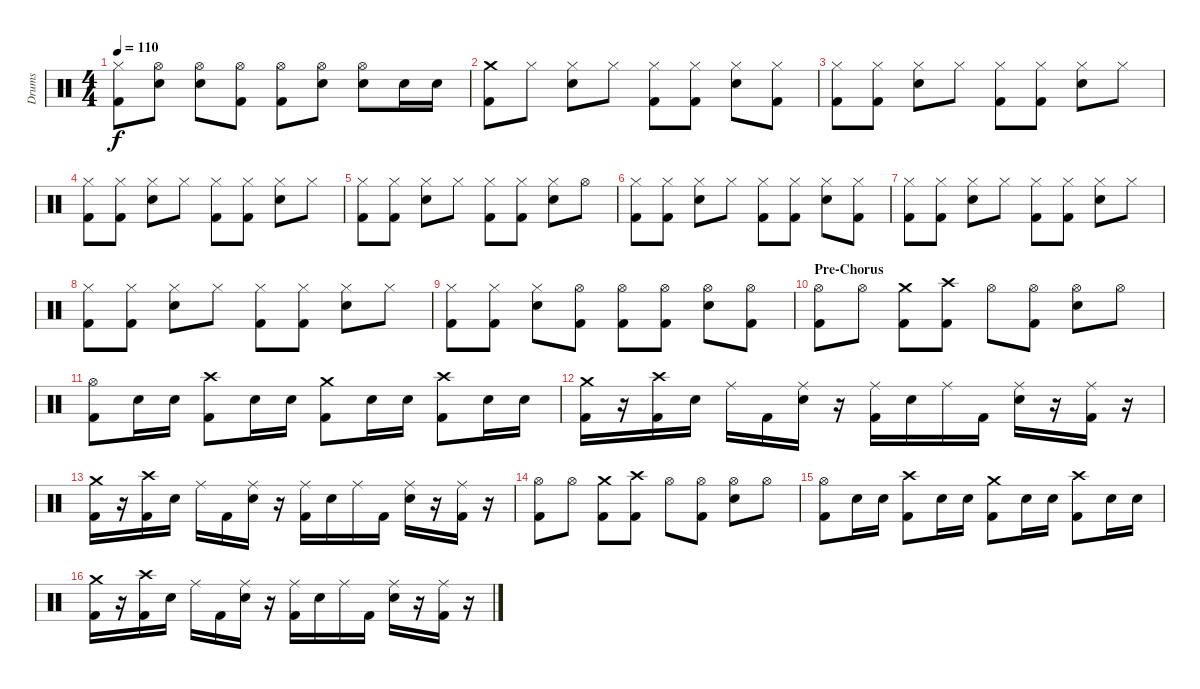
\track ("Drums" "Drums") {instrument percussion}
\staff {score}
\articulation defaults
\ts (4 4)
\tempo 110
\clef neutral
\ks c
("Hi-Hat (closed)" "Kick (hit) 2").8{dy f} ("Hi-Hat (open)" "Electric Snare (hit)").8 ("Hi-Hat (open)" "Electric Snare (hit)").8 ("Hi-Hat (open)" "Kick (hit) 2").8 ("Hi-Hat (open)" "Kick (hit) 2").8 ("Hi-Hat (open)" "Electric Snare (hit)").8 ("Hi-Hat (open)" "Electric Snare (hit)").8 "Electric Snare (hit)".16 "Electric Snare (hit)".16 |
("Crash medium (hit)" "Kick (hit) 2").8 "Hi-Hat (closed)".8 ("Hi-Hat (closed)" "Electric Snare (hit)").8 "Hi-Hat (closed)".8 ("Hi-Hat (closed)" "Kick (hit) 2").8 ("Hi-Hat (closed)" "Kick (hit) 2").8 ("Hi-Hat (closed)" "Electric Snare (hit)").8 ("Hi-Hat (closed)" "Kick (hit) 2").8 |
("Hi-Hat (closed)" "Kick (hit) 2").8 ("Hi-Hat (closed)" "Kick (hit) 2").8 ("Hi-Hat (closed)" "Electric Snare (hit)").8 "Hi-Hat (closed)".8 ("Hi-Hat (closed)" "Kick (hit) 2").8 ("Hi-Hat (closed)" "Kick (hit) 2").8 ("Hi-Hat (closed)" "Electric Snare (hit)").8 "Hi-Hat (closed)".8 |
("Hi-Hat (closed)" "Kick (hit) 2").8 ("Hi-Hat (closed)" "Kick (hit) 2").8 ("Hi-Hat (closed)" "Electric Snare (hit)").8 "Hi-Hat (closed)".8 ("Hi-Hat (closed)" "Kick (hit) 2").8 ("Hi-Hat (closed)" "Kick (hit) 2").8 ("Hi-Hat (closed)" "Electric Snare (hit)").8 "Hi-Hat (closed)".8 |
("Hi-Hat (closed)" "Kick (hit) 2").8 ("Hi-Hat (closed)" "Kick (hit) 2").8 ("Hi-Hat (closed)" "Electric Snare (hit)").8 "Hi-Hat (closed)".8 ("Hi-Hat (closed)" "Kick (hit) 2").8 ("Hi-Hat (closed)" "Kick (hit) 2").8 ("Hi-Hat (closed)" "Electric Snare (hit)").8 "Hi-Hat (open)".8 |
("Hi-Hat (closed)" "Kick (hit) 2").8 ("Hi-Hat (closed)" "Kick (hit) 2").8 ("Hi-Hat (closed)" "Electric Snare (hit)").8 "Hi-Hat (closed)".8 ("Hi-Hat (closed)" "Kick (hit) 2").8 ("Hi-Hat (closed)" "Kick (hit) 2").8 ("Hi-Hat (closed)" "Electric Snare (hit)").8 ("Hi-Hat (closed)" "Kick (hit) 2").8 |
("Hi-Hat (closed)" "Kick (hit) 2").8 ("Hi-Hat (closed)" "Kick (hit) 2").8 ("Hi-Hat (closed)" "Electric Snare (hit)").8 "Hi-Hat (closed)".8 ("Hi-Hat (closed)" "Kick (hit) 2").8 ("Hi-Hat (closed)" "Kick (hit) 2").8 ("Hi-Hat (closed)" "Electric Snare (hit)").8 "Hi-Hat (closed)".8 |
("Hi-Hat (closed)" "Kick (hit) 2").8 ("Hi-Hat (closed)" "Kick (hit) 2").8 ("Hi-Hat (closed)" "Electric Snare (hit)").8 "Hi-Hat (closed)".8 ("Hi-Hat (closed)" "Kick (hit) 2").8 ("Hi-Hat (closed)" "Kick (hit) 2").8 ("Hi-Hat (closed)" "Electric Snare (hit)").8 "Hi-Hat (closed)".8 |
("Hi-Hat (closed)" "Kick (hit) 2").8 ("Hi-Hat (closed)" "Kick (hit) 2").8 ("Hi-Hat (closed)" "Electric Snare (hit)").8 ("Hi-Hat (open)" "Kick (hit) 2").8 ("Hi-Hat (open)" "Kick (hit) 2").8 ("Hi-Hat (open)" "Kick (hit) 2").8 ("Hi-Hat (open)" "Electric Snare (hit)").8 ("Hi-Hat (open)" "Kick (hit) 2").8 |
\section ("" "Pre-Chorus")
("Hi-Hat (open)" "Kick (hit) 2").8 "Hi-Hat (open)".8 ("Crash medium (hit)" "Kick (hit) 2").8 ("Crash high (hit)" "Kick (hit) 2").8 "Hi-Hat (open)".8 ("Hi-Hat (open)" "Kick (hit) 2").8 ("Hi-Hat (open)" "Electric Snare (hit)").8 "Hi-Hat (open)".8 |
("Hi-Hat (open)" "Kick (hit) 2").8 "Electric Snare (hit)".16 "Electric Snare (hit)".16 ("Crash high (hit)" "Kick (hit) 2").8 "Electric Snare (hit)".16 "Electric Snare (hit)".16 ("Crash medium (hit)" "Kick (hit) 2").8 "Electric Snare (hit)".16 "Electric Snare (hit)".16 ("Crash high (hit)" "Kick (hit) 2").8 "Electric Snare (hit)".16 "Electric Snare (hit)".16 |
("Crash medium (hit)" "Kick (hit) 2").16 r.16 ("Crash high (hit)" "Kick (hit) 2").16 "Electric Snare (hit)".16 "Ride (middle)".16 "Kick (hit) 2".16 ("Ride (middle)" "Electric Snare (hit)").16 r.16 ("Ride (middle)" "Kick (hit) 2").16 "Electric Snare (hit)".16 "Ride (middle)".16 "Kick (hit) 2".16 ("Ride (middle)" "Electric Snare (hit)").16 r.16 ("Ride (middle)" "Kick (hit) 2").16 r.16 |
("Crash medium (hit)" "Kick (hit) 2").16 r.16 ("Crash high (hit)" "Kick (hit) 2").16 "Electric Snare (hit)".16 "Ride (middle)".16 "Kick (hit) 2".16 ("Ride (middle)" "Electric Snare (hit)").16 r.16 ("Ride (middle)" "Kick (hit) 2").16 "Electric Snare (hit)".16 "Ride (middle)".16 "Kick (hit) 2".16 ("Ride (middle)" "Electric Snare (hit)").16 r.16 ("Ride (middle)" "Kick (hit) 2").16 r.16 |
("Hi-Hat (open)" "Kick (hit) 2").8 "Hi-Hat (open)".8 ("Crash medium (hit)" "Kick (hit) 2").8 ("Crash high (hit)" "Kick (hit) 2").8 "Hi-Hat (open)".8 ("Hi-Hat (open)" "Kick (hit) 2").8 ("Hi-Hat (open)" "Electric Snare (hit)").8 "Hi-Hat (open)".8 |
("Hi-Hat (open)" "Kick (hit) 2").8 "Electric Snare (hit)".16 "Electric Snare (hit)".16 ("Crash high (hit)" "Kick (hit) 2").8 "Electric Snare (hit)".16 "Electric Snare (hit)".16 ("Crash medium (hit)" "Kick (hit) 2").8 "Electric Snare (hit)".16 "Electric Snare (hit)".16 ("Crash high (hit)" "Kick (hit) 2").8 "Electric Snare (hit)".16 "Electric Snare (hit)".16 |
("Crash medium (hit)" "Kick (hit) 2").16 r.16 ("Crash high (hit)" "Kick (hit) 2").16 "Electric Snare (hit)".16 "Ride (middle)".16 "Kick (hit) 2".16 ("Ride (middle)" "Electric Snare (hit)").16 r.16 ("Ride (middle)" "Kick (hit) 2").16 "Electric Snare (hit)".16 "Ride (middle)".16 "Kick (hit) 2".16 ("Ride (middle)" "Electric Snare (hit)").16 r.16 ("Ride (middle)" "Kick (hit) 2").16 r.16
